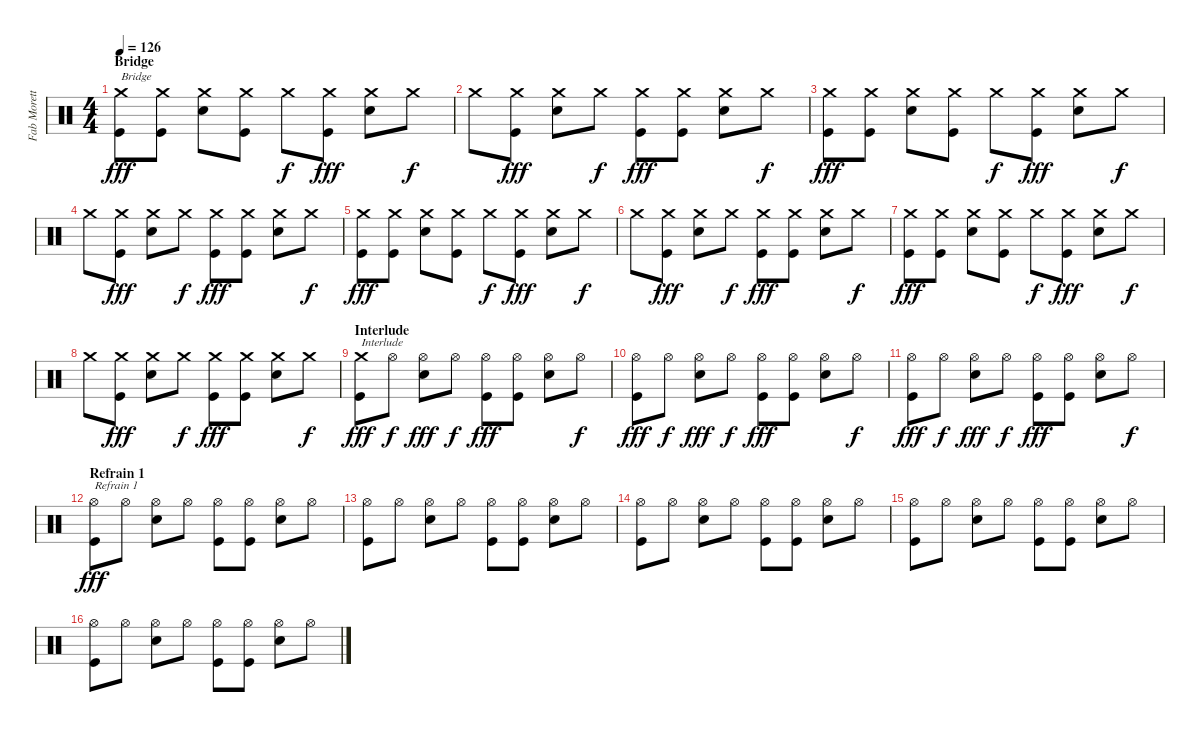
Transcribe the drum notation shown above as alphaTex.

\track ("Fab Moretti" "Fab Morett") {instrument percussion}
\staff {score}
\articulation defaults
\ts (4 4)
\section ("" "Bridge")
\tempo 126
\clef neutral
\ks c
("Crash medium (hit)" "Kick (hit)").8{txt "Bridge" dy fff} ("Crash medium (hit)" "Kick (hit)").8 ("Crash medium (hit)" "Snare (hit) 2").8 ("Crash medium (hit)" "Kick (hit)").8 "Crash medium (hit)".8{dy f} ("Crash medium (hit)" "Kick (hit)").8{dy fff} ("Crash medium (hit)" "Snare (hit) 2").8 "Crash medium (hit)".8{dy f} |
"Crash medium (hit)".8 ("Crash medium (hit)" "Kick (hit)").8{dy fff} ("Crash medium (hit)" "Snare (hit) 2").8 "Crash medium (hit)".8{dy f} ("Crash medium (hit)" "Kick (hit)").8{dy fff} ("Crash medium (hit)" "Kick (hit)").8 ("Crash medium (hit)" "Snare (hit) 2").8 "Crash medium (hit)".8{dy f} |
("Crash medium (hit)" "Kick (hit)").8{dy fff} ("Crash medium (hit)" "Kick (hit)").8 ("Crash medium (hit)" "Snare (hit) 2").8 ("Crash medium (hit)" "Kick (hit)").8 "Crash medium (hit)".8{dy f} ("Crash medium (hit)" "Kick (hit)").8{dy fff} ("Crash medium (hit)" "Snare (hit) 2").8 "Crash medium (hit)".8{dy f} |
"Crash medium (hit)".8 ("Crash medium (hit)" "Kick (hit)").8{dy fff} ("Crash medium (hit)" "Snare (hit) 2").8 "Crash medium (hit)".8{dy f} ("Crash medium (hit)" "Kick (hit)").8{dy fff} ("Crash medium (hit)" "Kick (hit)").8 ("Crash medium (hit)" "Snare (hit) 2").8 "Crash medium (hit)".8{dy f} |
("Crash medium (hit)" "Kick (hit)").8{dy fff} ("Crash medium (hit)" "Kick (hit)").8 ("Crash medium (hit)" "Snare (hit) 2").8 ("Crash medium (hit)" "Kick (hit)").8 "Crash medium (hit)".8{dy f} ("Crash medium (hit)" "Kick (hit)").8{dy fff} ("Crash medium (hit)" "Snare (hit) 2").8 "Crash medium (hit)".8{dy f} |
"Crash medium (hit)".8 ("Crash medium (hit)" "Kick (hit)").8{dy fff} ("Crash medium (hit)" "Snare (hit) 2").8 "Crash medium (hit)".8{dy f} ("Crash medium (hit)" "Kick (hit)").8{dy fff} ("Crash medium (hit)" "Kick (hit)").8 ("Crash medium (hit)" "Snare (hit) 2").8 "Crash medium (hit)".8{dy f} |
("Crash medium (hit)" "Kick (hit)").8{dy fff} ("Crash medium (hit)" "Kick (hit)").8 ("Crash medium (hit)" "Snare (hit) 2").8 ("Crash medium (hit)" "Kick (hit)").8 "Crash medium (hit)".8{dy f} ("Crash medium (hit)" "Kick (hit)").8{dy fff} ("Crash medium (hit)" "Snare (hit) 2").8 "Crash medium (hit)".8{dy f} |
"Crash medium (hit)".8 ("Crash medium (hit)" "Kick (hit)").8{dy fff} ("Crash medium (hit)" "Snare (hit) 2").8 "Crash medium (hit)".8{dy f} ("Crash medium (hit)" "Kick (hit)").8{dy fff} ("Crash medium (hit)" "Kick (hit)").8 ("Crash medium (hit)" "Snare (hit) 2").8 "Crash medium (hit)".8{dy f} |
\section ("" "Interlude")
("Crash medium (hit)" "Kick (hit)").8{txt "Interlude" dy fff} "Hi-Hat (open)".8{dy f} ("Hi-Hat (open)" "Snare (hit) 2").8{dy fff} "Hi-Hat (open)".8{dy f} ("Hi-Hat (open)" "Kick (hit)").8{dy fff} ("Hi-Hat (open)" "Kick (hit)").8 ("Hi-Hat (open)" "Snare (hit) 2").8 "Hi-Hat (open)".8{dy f} |
("Hi-Hat (open)" "Kick (hit)").8{dy fff} "Hi-Hat (open)".8{dy f} ("Hi-Hat (open)" "Snare (hit) 2").8{dy fff} "Hi-Hat (open)".8{dy f} ("Hi-Hat (open)" "Kick (hit)").8{dy fff} ("Hi-Hat (open)" "Kick (hit)").8 ("Hi-Hat (open)" "Snare (hit) 2").8 "Hi-Hat (open)".8{dy f} |
("Hi-Hat (open)" "Kick (hit)").8{dy fff} "Hi-Hat (open)".8{dy f} ("Hi-Hat (open)" "Snare (hit) 2").8{dy fff} "Hi-Hat (open)".8{dy f} ("Hi-Hat (open)" "Kick (hit)").8{dy fff} ("Hi-Hat (open)" "Kick (hit)").8 ("Hi-Hat (open)" "Snare (hit) 2").8 "Hi-Hat (open)".8{dy f} |
\section ("" "Refrain 1")
("Hi-Hat (open)" "Kick (hit)").8{txt "Refrain 1" dy fff} "Hi-Hat (open)".8 ("Hi-Hat (open)" "Snare (hit) 2").8 "Hi-Hat (open)".8 ("Hi-Hat (open)" "Kick (hit)").8 ("Hi-Hat (open)" "Kick (hit)").8 ("Hi-Hat (open)" "Snare (hit) 2").8 "Hi-Hat (open)".8 |
("Hi-Hat (open)" "Kick (hit)").8 "Hi-Hat (open)".8 ("Hi-Hat (open)" "Snare (hit) 2").8 "Hi-Hat (open)".8 ("Hi-Hat (open)" "Kick (hit)").8 ("Hi-Hat (open)" "Kick (hit)").8 ("Hi-Hat (open)" "Snare (hit) 2").8 "Hi-Hat (open)".8 |
("Hi-Hat (open)" "Kick (hit)").8 "Hi-Hat (open)".8 ("Hi-Hat (open)" "Snare (hit) 2").8 "Hi-Hat (open)".8 ("Hi-Hat (open)" "Kick (hit)").8 ("Hi-Hat (open)" "Kick (hit)").8 ("Hi-Hat (open)" "Snare (hit) 2").8 "Hi-Hat (open)".8 |
("Hi-Hat (open)" "Kick (hit)").8 "Hi-Hat (open)".8 ("Hi-Hat (open)" "Snare (hit) 2").8 "Hi-Hat (open)".8 ("Hi-Hat (open)" "Kick (hit)").8 ("Hi-Hat (open)" "Kick (hit)").8 ("Hi-Hat (open)" "Snare (hit) 2").8 "Hi-Hat (open)".8 |
("Hi-Hat (open)" "Kick (hit)").8 "Hi-Hat (open)".8 ("Hi-Hat (open)" "Snare (hit) 2").8 "Hi-Hat (open)".8 ("Hi-Hat (open)" "Kick (hit)").8 ("Hi-Hat (open)" "Kick (hit)").8 ("Hi-Hat (open)" "Snare (hit) 2").8 "Hi-Hat (open)".8
